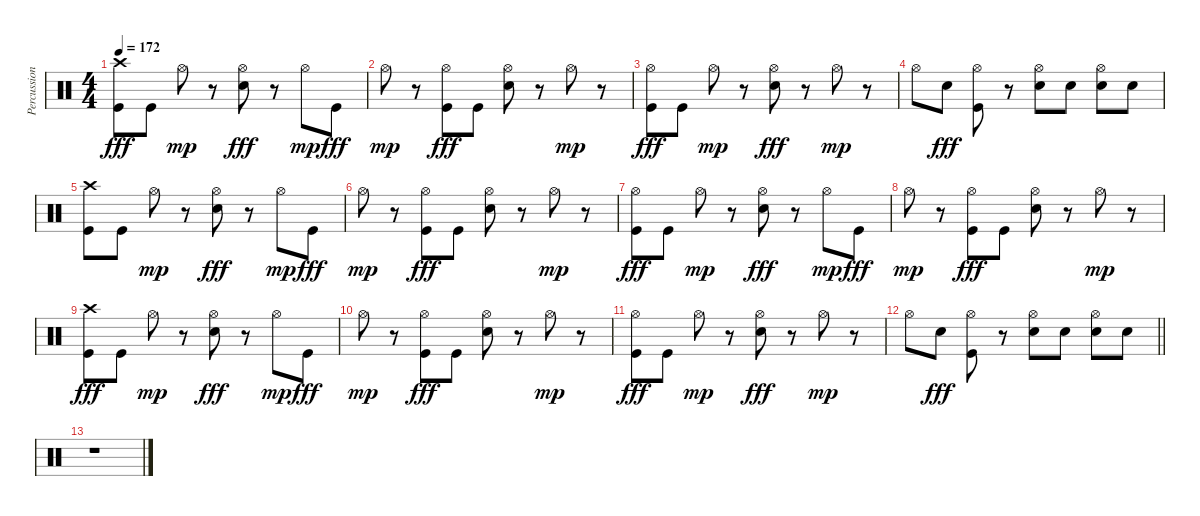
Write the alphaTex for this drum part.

\track ("Percussions" "Percussion") {instrument percussion}
\staff {score}
\articulation defaults
\ts (4 4)
\tempo 172
\clef neutral
\ks c
("Crash high (hit)" "Kick (hit)").8{dy fff volume 4} "Kick (hit)".8 "Hi-Hat (open)".8{dy mp} r.8 ("Hi-Hat (open)" "Snare (hit) 2").8{dy fff} r.8 "Hi-Hat (open)".8{dy mp} "Kick (hit)".8{dy fff} |
"Hi-Hat (open)".8{dy mp} r.8 ("Hi-Hat (open)" "Kick (hit)").8{dy fff} "Kick (hit)".8 ("Hi-Hat (open)" "Snare (hit) 2").8 r.8 "Hi-Hat (open)".8{dy mp} r.8 |
("Hi-Hat (open)" "Kick (hit)").8{dy fff} "Kick (hit)".8 "Hi-Hat (open)".8{dy mp} r.8 ("Hi-Hat (open)" "Snare (hit) 2").8{dy fff} r.8 "Hi-Hat (open)".8{dy mp} r.8 |
"Hi-Hat (open)".8 "Snare (hit) 2".8{dy fff} ("Hi-Hat (open)" "Kick (hit)").8 r.8 ("Hi-Hat (open)" "Snare (hit) 2").8 "Snare (hit) 2".8 ("Hi-Hat (open)" "Snare (hit) 2").8 "Snare (hit) 2".8 |
("Crash high (hit)" "Kick (hit)").8{volume 2} "Kick (hit)".8 "Hi-Hat (open)".8{dy mp} r.8 ("Hi-Hat (open)" "Snare (hit) 2").8{dy fff} r.8 "Hi-Hat (open)".8{dy mp} "Kick (hit)".8{dy fff} |
"Hi-Hat (open)".8{dy mp} r.8 ("Hi-Hat (open)" "Kick (hit)").8{dy fff} "Kick (hit)".8 ("Hi-Hat (open)" "Snare (hit) 2").8 r.8 "Hi-Hat (open)".8{dy mp} r.8 |
("Hi-Hat (open)" "Kick (hit)").8{dy fff} "Kick (hit)".8 "Hi-Hat (open)".8{dy mp} r.8 ("Hi-Hat (open)" "Snare (hit) 2").8{dy fff} r.8 "Hi-Hat (open)".8{dy mp} "Kick (hit)".8{dy fff} |
"Hi-Hat (open)".8{dy mp} r.8 ("Hi-Hat (open)" "Kick (hit)").8{dy fff} "Kick (hit)".8 ("Hi-Hat (open)" "Snare (hit) 2").8 r.8 "Hi-Hat (open)".8{dy mp} r.8 |
("Crash high (hit)" "Kick (hit)").8{dy fff volume 0} "Kick (hit)".8 "Hi-Hat (open)".8{dy mp} r.8 ("Hi-Hat (open)" "Snare (hit) 2").8{dy fff} r.8 "Hi-Hat (open)".8{dy mp} "Kick (hit)".8{dy fff} |
"Hi-Hat (open)".8{dy mp} r.8 ("Hi-Hat (open)" "Kick (hit)").8{dy fff} "Kick (hit)".8 ("Hi-Hat (open)" "Snare (hit) 2").8 r.8 "Hi-Hat (open)".8{dy mp} r.8 |
("Hi-Hat (open)" "Kick (hit)").8{dy fff} "Kick (hit)".8 "Hi-Hat (open)".8{dy mp} r.8 ("Hi-Hat (open)" "Snare (hit) 2").8{dy fff} r.8 "Hi-Hat (open)".8{dy mp} r.8 |
\barLineRight lightlight "Hi-Hat (open)".8 "Snare (hit) 2".8{dy fff}
("Hi-Hat (open)" "Kick (hit)").8 r.8 ("Hi-Hat (open)" "Snare (hit) 2").8 "Snare (hit) 2".8 ("Hi-Hat (open)" "Snare (hit) 2").8 "Snare (hit) 2".8 |
r.1
